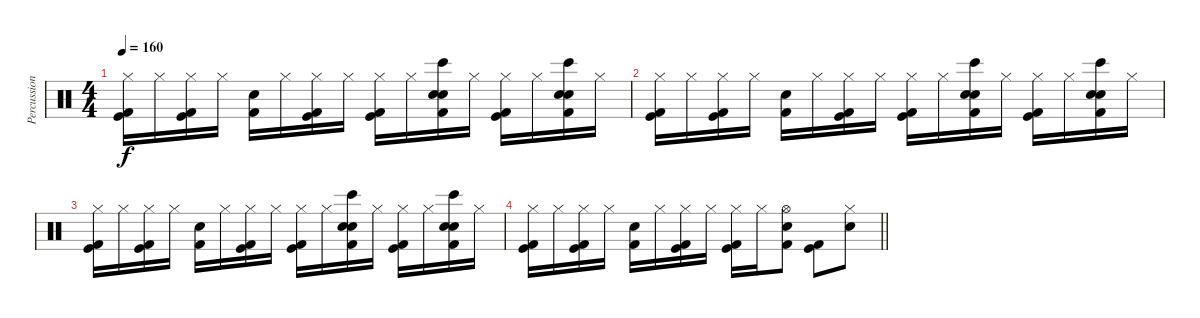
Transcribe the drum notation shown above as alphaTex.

\track ("Percussion" "Percussion") {instrument percussion}
\staff {score}
\articulation defaults
\ts (4 4)
\tempo 160
\clef neutral
\ks c
("Hi-Hat (closed)" "Kick (hit)" "Kick (hit) 2").16{dy f} "Hi-Hat (closed)".16 ("Hi-Hat (closed)" "Kick (hit)" "Kick (hit) 2").16 "Hi-Hat (closed)".16 ("Electric Snare (hit)" "Kick (hit) 2").16 "Hi-Hat (closed)".16 ("Hi-Hat (closed)" "Kick (hit)" "Kick (hit) 2").16 "Hi-Hat (closed)".16 ("Hi-Hat (closed)" "Kick (hit)" "Kick (hit) 2").16 "Hi-Hat (closed)".16 ("Hand Clap (hit)" "Bongo High (hit)" "Electric Snare (hit)" "Kick (hit) 2").16 "Hi-Hat (closed)".16 ("Hi-Hat (closed)" "Kick (hit)" "Kick (hit) 2").16 "Hi-Hat (closed)".16 ("Hand Clap (hit)" "Bongo High (hit)" "Electric Snare (hit)" "Kick (hit) 2").16 "Hi-Hat (closed)".16 |
("Hi-Hat (closed)" "Kick (hit)" "Kick (hit) 2").16 "Hi-Hat (closed)".16 ("Hi-Hat (closed)" "Kick (hit)" "Kick (hit) 2").16 "Hi-Hat (closed)".16 ("Electric Snare (hit)" "Kick (hit) 2").16 "Hi-Hat (closed)".16 ("Hi-Hat (closed)" "Kick (hit)" "Kick (hit) 2").16 "Hi-Hat (closed)".16 ("Hi-Hat (closed)" "Kick (hit)" "Kick (hit) 2").16 "Hi-Hat (closed)".16 ("Hand Clap (hit)" "Bongo High (hit)" "Electric Snare (hit)" "Kick (hit) 2").16 "Hi-Hat (closed)".16 ("Hi-Hat (closed)" "Kick (hit)" "Kick (hit) 2").16 "Hi-Hat (closed)".16 ("Hand Clap (hit)" "Bongo High (hit)" "Electric Snare (hit)" "Kick (hit) 2").16 "Hi-Hat (closed)".16 |
("Hi-Hat (closed)" "Kick (hit)" "Kick (hit) 2").16 "Hi-Hat (closed)".16 ("Hi-Hat (closed)" "Kick (hit)" "Kick (hit) 2").16 "Hi-Hat (closed)".16 ("Electric Snare (hit)" "Kick (hit) 2").16 "Hi-Hat (closed)".16 ("Hi-Hat (closed)" "Kick (hit)" "Kick (hit) 2").16 "Hi-Hat (closed)".16 ("Hi-Hat (closed)" "Kick (hit)" "Kick (hit) 2").16 "Hi-Hat (closed)".16 ("Hand Clap (hit)" "Bongo High (hit)" "Electric Snare (hit)" "Kick (hit) 2").16 "Hi-Hat (closed)".16 ("Hi-Hat (closed)" "Kick (hit)" "Kick (hit) 2").16 "Hi-Hat (closed)".16 ("Hand Clap (hit)" "Bongo High (hit)" "Electric Snare (hit)" "Kick (hit) 2").16 "Hi-Hat (closed)".16 |
\barLineRight lightlight
("Hi-Hat (closed)" "Kick (hit)" "Kick (hit) 2").16 "Hi-Hat (closed)".16 ("Hi-Hat (closed)" "Kick (hit)" "Kick (hit) 2").16 "Hi-Hat (closed)".16 ("Electric Snare (hit)" "Kick (hit) 2").16 "Hi-Hat (closed)".16 ("Hi-Hat (closed)" "Kick (hit)" "Kick (hit) 2").16 "Hi-Hat (closed)".16 ("Hi-Hat (closed)" "Kick (hit)" "Kick (hit) 2").16 "Hi-Hat (closed)".16 ("Hi-Hat (open)" "Electric Snare (hit)" "Kick (hit) 2").8 ("Kick (hit)" "Kick (hit) 2").8 ("Hi-Hat (closed)" "Electric Snare (hit)").8
